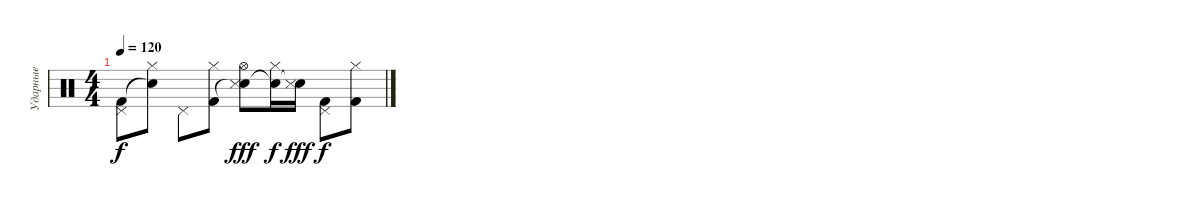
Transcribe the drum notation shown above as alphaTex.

\track ("Ударные" "Ударные") {instrument percussion}
\staff {score}
\articulation defaults
\ts (4 4)
\tempo 120
\clef neutral
\ks c
("Kick (hit) 2" "Pedal Hi-Hat (hit)").8{dy f} ("Snare (hit)"{t} "Hi-Hat (closed)").8 "Pedal Hi-Hat (hit)".8 ("Kick (hit) 2" "Hi-Hat (closed)").8 ("Snare (hit)"{t} "Hi-Hat (open)" "Snare (side stick) 3").8{dy fff} ("Snare (hit)"{t} "Hi-Hat (closed)").16{dy f} ("Snare (hit)"{t} "Snare (side stick) 3").16{dy fff} ("Kick (hit) 2" "Pedal Hi-Hat (hit)").8{dy f} ("Kick (hit) 2" "Hi-Hat (closed)").8
